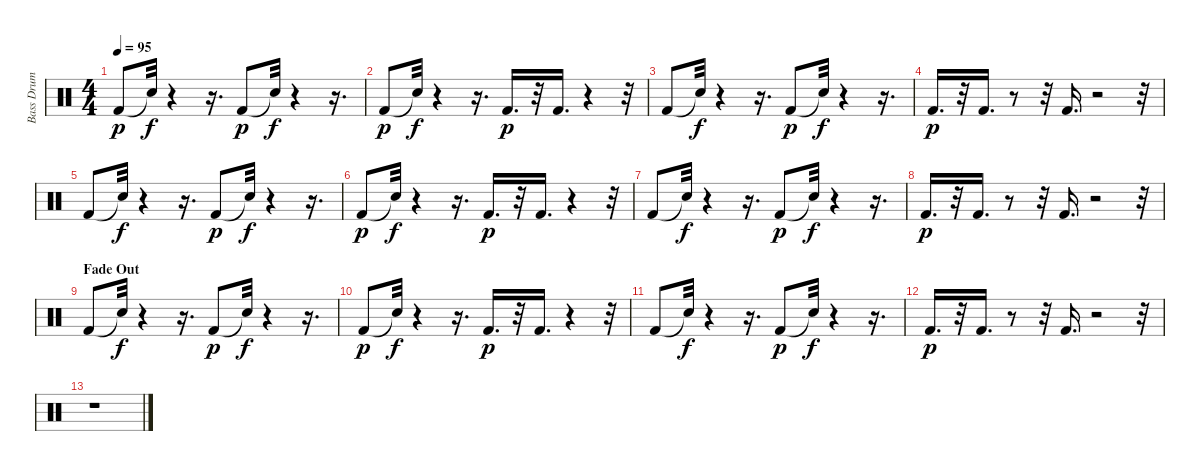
\track ("Bass Drum" "Bass Drum") {instrument percussion}
\staff {score}
\articulation defaults
\ts (4 4)
\tempo 95
\clef neutral
\ks c "Kick (hit) 2".8{dy p} "Snare (hit)"{t}.32{dy f}
r.4 r.16{d} "Kick (hit) 2".8{dy p} "Snare (hit)"{t}.32{dy f} r.4 r.16{d} |
"Kick (hit) 2".8{dy p} "Snare (hit)"{t}.32{dy f} r.4 r.16{d} "Kick (hit) 2".16{d dy p} r.32 "Kick (hit) 2".16{d} r.4 r.32 |
"Kick (hit) 2".8 "Snare (hit)"{t}.32{dy f} r.4 r.16{d} "Kick (hit) 2".8{dy p} "Snare (hit)"{t}.32{dy f} r.4 r.16{d} |
"Kick (hit) 2".16{d dy p} r.32 "Kick (hit) 2".16{d} r.8 r.32 "Kick (hit) 2".16{d} r.2 r.32 |
"Kick (hit) 2".8 "Snare (hit)"{t}.32{dy f} r.4 r.16{d} "Kick (hit) 2".8{dy p} "Snare (hit)"{t}.32{dy f} r.4 r.16{d} |
"Kick (hit) 2".8{dy p} "Snare (hit)"{t}.32{dy f} r.4 r.16{d} "Kick (hit) 2".16{d dy p} r.32 "Kick (hit) 2".16{d} r.4 r.32 |
"Kick (hit) 2".8 "Snare (hit)"{t}.32{dy f} r.4 r.16{d} "Kick (hit) 2".8{dy p} "Snare (hit)"{t}.32{dy f} r.4 r.16{d} |
"Kick (hit) 2".16{d dy p} r.32 "Kick (hit) 2".16{d} r.8 r.32 "Kick (hit) 2".16{d} r.2 r.32 |
\section ("" "Fade Out")
"Kick (hit) 2".8{volume 0} "Snare (hit)"{t}.32{dy f} r.4 r.16{d} "Kick (hit) 2".8{dy p} "Snare (hit)"{t}.32{dy f} r.4 r.16{d} |
"Kick (hit) 2".8{dy p} "Snare (hit)"{t}.32{dy f} r.4 r.16{d} "Kick (hit) 2".16{d dy p} r.32 "Kick (hit) 2".16{d} r.4 r.32 |
"Kick (hit) 2".8 "Snare (hit)"{t}.32{dy f} r.4 r.16{d} "Kick (hit) 2".8{dy p} "Snare (hit)"{t}.32{dy f} r.4 r.16{d} |
"Kick (hit) 2".16{d dy p} r.32 "Kick (hit) 2".16{d} r.8 r.32 "Kick (hit) 2".16{d} r.2 r.32 |
r.1
